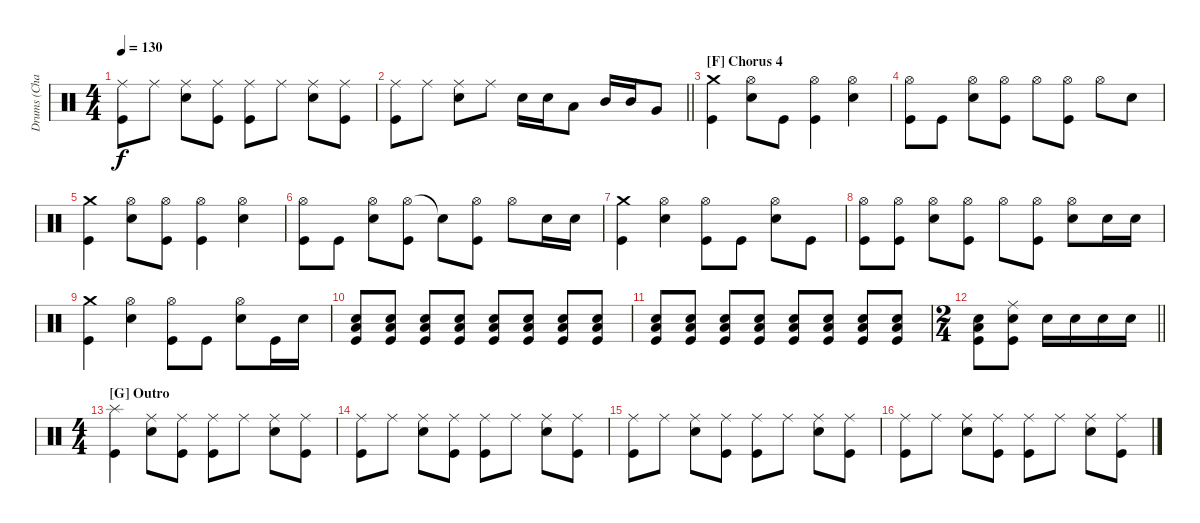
\track ("Drums (Chad Channing)" "Drums (Cha") {instrument percussion}
\staff {score}
\articulation defaults
\ts (4 4)
\tempo 130
\clef neutral
\ks c
("Ride (middle)" "Kick (hit)").8{dy f} "Ride (middle)".8 ("Ride (middle)" "Snare (hit) 2").8 ("Ride (middle)" "Kick (hit)").8 ("Ride (middle)" "Kick (hit)").8 "Ride (middle)".8 ("Ride (middle)" "Snare (hit) 2").8 ("Ride (middle)" "Kick (hit)").8 |
\barLineRight lightlight
("Ride (middle)" "Kick (hit)").8 "Ride (middle)".8 ("Ride (middle)" "Snare (hit) 2").8 "Ride (middle)".8 "Snare (hit) 2".16 "Snare (hit) 2".16 "Low Tom (hit)".8 "Mid Tom (hit)".16 "Mid Tom (hit)".16 "Very Low Tom (hit)".8 |
\section ("" "[F] Chorus 4")
("Crash medium (hit)" "Kick (hit)").4 ("Hi-Hat (open)" "Snare (hit) 2").8 "Kick (hit)".8 ("Hi-Hat (open)" "Kick (hit)").4 ("Hi-Hat (open)" "Snare (hit) 2").4 |
("Hi-Hat (open)" "Kick (hit)").8 "Kick (hit)".8 ("Hi-Hat (open)" "Snare (hit) 2").8 ("Hi-Hat (open)" "Kick (hit)").8 "Hi-Hat (open)".8 ("Hi-Hat (open)" "Kick (hit)").8 "Hi-Hat (open)".8 "Snare (hit) 2".8 |
("Crash medium (hit)" "Kick (hit)").4 ("Hi-Hat (open)" "Snare (hit) 2").8 ("Hi-Hat (open)" "Kick (hit)").8 ("Hi-Hat (open)" "Kick (hit)").4 ("Hi-Hat (open)" "Snare (hit) 2").4 |
("Hi-Hat (open)" "Kick (hit)").8 "Kick (hit)".8 ("Hi-Hat (open)" "Snare (hit) 2").8 ("Hi-Hat (open)" "Kick (hit)").8 "Snare (hit)"{t}.8 ("Hi-Hat (open)" "Kick (hit)").8 "Hi-Hat (open)".8 "Snare (hit) 2".16 "Snare (hit) 2".16 |
("Crash medium (hit)" "Kick (hit)").4 ("Hi-Hat (open)" "Snare (hit) 2").4 ("Hi-Hat (open)" "Kick (hit)").8 "Kick (hit)".8 ("Hi-Hat (open)" "Snare (hit) 2").8 "Kick (hit)".8 |
("Hi-Hat (open)" "Kick (hit)").8 ("Hi-Hat (open)" "Kick (hit)").8 ("Hi-Hat (open)" "Snare (hit) 2").8 ("Hi-Hat (open)" "Kick (hit)").8 "Hi-Hat (open)".8 ("Hi-Hat (open)" "Kick (hit)").8 ("Hi-Hat (open)" "Snare (hit) 2").8 "Snare (hit) 2".16 "Snare (hit) 2".16 |
("Crash medium (hit)" "Kick (hit)").4 ("Hi-Hat (open)" "Snare (hit) 2").4 ("Hi-Hat (open)" "Kick (hit)").8 "Kick (hit)".8 ("Hi-Hat (open)" "Snare (hit) 2").8 "Kick (hit)".16 "Snare (hit) 2".16 |
("Snare (hit) 2" "Low Floor Tom (hit)" "Kick (hit)").8{volume 8} ("Snare (hit) 2" "Low Floor Tom (hit)" "Kick (hit)").8 ("Snare (hit) 2" "Low Floor Tom (hit)" "Kick (hit)").8{volume 16} ("Snare (hit) 2" "Low Floor Tom (hit)" "Kick (hit)").8 ("Snare (hit) 2" "Low Floor Tom (hit)" "Kick (hit)").8 ("Snare (hit) 2" "Low Floor Tom (hit)" "Kick (hit)").8 ("Snare (hit) 2" "Low Floor Tom (hit)" "Kick (hit)").8 ("Snare (hit) 2" "Low Floor Tom (hit)" "Kick (hit)").8 |
("Snare (hit) 2" "Low Floor Tom (hit)" "Kick (hit)").8 ("Snare (hit) 2" "Low Floor Tom (hit)" "Kick (hit)").8 ("Snare (hit) 2" "Low Floor Tom (hit)" "Kick (hit)").8 ("Snare (hit) 2" "Low Floor Tom (hit)" "Kick (hit)").8 ("Snare (hit) 2" "Low Floor Tom (hit)" "Kick (hit)").8 ("Snare (hit) 2" "Low Floor Tom (hit)" "Kick (hit)").8 ("Snare (hit) 2" "Low Floor Tom (hit)" "Kick (hit)").8 ("Snare (hit) 2" "Low Floor Tom (hit)" "Kick (hit)").8 |
\ts (2 4)
\barLineRight lightlight
("Snare (hit) 2" "Low Floor Tom (hit)" "Kick (hit)").8 ("Snare (hit) 2" "Ride (middle)" "Kick (hit)").8 "Snare (hit) 2".16 "Snare (hit) 2".16 "Snare (hit) 2".16 "Snare (hit) 2".16 |
\ts (4 4)
\section ("" "[G] Outro")
("Splash (hit)" "Kick (hit)").4{volume 14} ("Ride (middle)" "Snare (hit) 2").8 ("Ride (middle)" "Kick (hit)").8 ("Ride (middle)" "Kick (hit)").8 "Ride (middle)".8 ("Ride (middle)" "Snare (hit) 2").8 ("Ride (middle)" "Kick (hit)").8 |
("Ride (middle)" "Kick (hit)").8 "Ride (middle)".8 ("Ride (middle)" "Snare (hit) 2").8 ("Ride (middle)" "Kick (hit)").8 ("Ride (middle)" "Kick (hit)").8 "Ride (middle)".8 ("Ride (middle)" "Snare (hit) 2").8 ("Ride (middle)" "Kick (hit)").8 |
("Ride (middle)" "Kick (hit)").8 "Ride (middle)".8 ("Ride (middle)" "Snare (hit) 2").8 ("Ride (middle)" "Kick (hit)").8 ("Ride (middle)" "Kick (hit)").8 "Ride (middle)".8 ("Ride (middle)" "Snare (hit) 2").8 ("Ride (middle)" "Kick (hit)").8 |
("Ride (middle)" "Kick (hit)").8 "Ride (middle)".8 ("Ride (middle)" "Snare (hit) 2").8 ("Ride (middle)" "Kick (hit)").8 ("Ride (middle)" "Kick (hit)").8 "Ride (middle)".8 ("Ride (middle)" "Snare (hit) 2").8 ("Ride (middle)" "Kick (hit)").8
